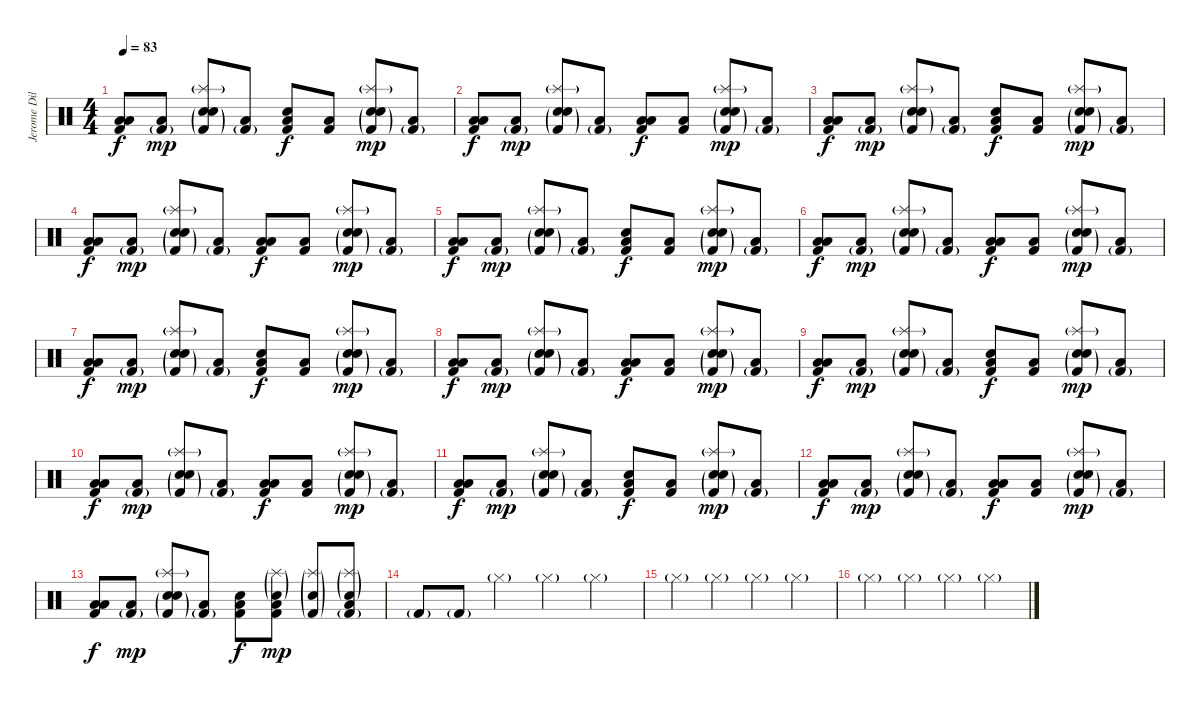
\track ("Jerome Dillon" "Jerome Dil") {instrument percussion}
\staff {score}
\articulation defaults
\ts (4 4)
\tempo 83
\clef neutral
\ks c
("Low Floor Tom (hit)" "Low Tom (hit)" "Kick (hit) 2").8{dy f} ("Low Tom (hit)" "Kick (hit) 2"{g}).8{dy mp} ("Splash (hit)"{g} "Hand Clap (hit)" "Electric Snare (hit)"{g} "Kick (hit) 2"{g}).8 ("Low Tom (hit)" "Kick (hit) 2"{g}).8 ("Low Floor Tom (hit)" "Snare (hit)" "Kick (hit) 2").8{dy f} ("Low Tom (hit)" "Kick (hit) 2").8 ("Splash (hit)"{g} "Hand Clap (hit)" "Electric Snare (hit)"{g} "Kick (hit) 2"{g}).8{dy mp} ("Low Tom (hit)" "Kick (hit) 2"{g}).8 |
("Low Floor Tom (hit)" "Low Tom (hit)" "Kick (hit) 2").8{dy f} ("Low Tom (hit)" "Kick (hit) 2"{g}).8{dy mp} ("Splash (hit)"{g} "Hand Clap (hit)" "Electric Snare (hit)"{g} "Kick (hit) 2"{g}).8 ("Low Tom (hit)" "Kick (hit) 2"{g}).8 ("Low Floor Tom (hit)" "Low Tom (hit)" "Kick (hit) 2").8{dy f} ("Low Tom (hit)" "Kick (hit) 2").8 ("Splash (hit)"{g} "Hand Clap (hit)" "Electric Snare (hit)"{g} "Kick (hit) 2"{g}).8{dy mp} ("Low Tom (hit)" "Kick (hit) 2"{g}).8 |
("Low Floor Tom (hit)" "Low Tom (hit)" "Kick (hit) 2").8{dy f} ("Low Tom (hit)" "Kick (hit) 2"{g}).8{dy mp} ("Splash (hit)"{g} "Hand Clap (hit)" "Electric Snare (hit)"{g} "Kick (hit) 2"{g}).8 ("Low Tom (hit)" "Kick (hit) 2"{g}).8 ("Low Floor Tom (hit)" "Snare (hit)" "Kick (hit) 2").8{dy f} ("Low Tom (hit)" "Kick (hit) 2").8 ("Splash (hit)"{g} "Hand Clap (hit)" "Electric Snare (hit)"{g} "Kick (hit) 2"{g}).8{dy mp} ("Low Tom (hit)" "Kick (hit) 2"{g}).8 |
("Low Floor Tom (hit)" "Low Tom (hit)" "Kick (hit) 2").8{dy f} ("Low Tom (hit)" "Kick (hit) 2"{g}).8{dy mp} ("Splash (hit)"{g} "Hand Clap (hit)" "Electric Snare (hit)"{g} "Kick (hit) 2"{g}).8 ("Low Tom (hit)" "Kick (hit) 2"{g}).8 ("Low Floor Tom (hit)" "Low Tom (hit)" "Kick (hit) 2").8{dy f} ("Low Tom (hit)" "Kick (hit) 2").8 ("Splash (hit)"{g} "Hand Clap (hit)" "Electric Snare (hit)"{g} "Kick (hit) 2"{g}).8{dy mp} ("Low Tom (hit)" "Kick (hit) 2"{g}).8 |
("Low Floor Tom (hit)" "Low Tom (hit)" "Kick (hit) 2").8{dy f} ("Low Tom (hit)" "Kick (hit) 2"{g}).8{dy mp} ("Splash (hit)"{g} "Hand Clap (hit)" "Electric Snare (hit)"{g} "Kick (hit) 2"{g}).8 ("Low Tom (hit)" "Kick (hit) 2"{g}).8 ("Low Floor Tom (hit)" "Snare (hit)" "Kick (hit) 2").8{dy f} ("Low Tom (hit)" "Kick (hit) 2").8 ("Splash (hit)"{g} "Hand Clap (hit)" "Electric Snare (hit)"{g} "Kick (hit) 2"{g}).8{dy mp} ("Low Tom (hit)" "Kick (hit) 2"{g}).8 |
("Low Floor Tom (hit)" "Low Tom (hit)" "Kick (hit) 2").8{dy f} ("Low Tom (hit)" "Kick (hit) 2"{g}).8{dy mp} ("Splash (hit)"{g} "Hand Clap (hit)" "Electric Snare (hit)"{g} "Kick (hit) 2"{g}).8 ("Low Tom (hit)" "Kick (hit) 2"{g}).8 ("Low Floor Tom (hit)" "Low Tom (hit)" "Kick (hit) 2").8{dy f} ("Low Tom (hit)" "Kick (hit) 2").8 ("Splash (hit)"{g} "Hand Clap (hit)" "Electric Snare (hit)"{g} "Kick (hit) 2"{g}).8{dy mp} ("Low Tom (hit)" "Kick (hit) 2"{g}).8 |
("Low Floor Tom (hit)" "Low Tom (hit)" "Kick (hit) 2").8{dy f} ("Low Tom (hit)" "Kick (hit) 2"{g}).8{dy mp} ("Splash (hit)"{g} "Hand Clap (hit)" "Electric Snare (hit)"{g} "Kick (hit) 2"{g}).8 ("Low Tom (hit)" "Kick (hit) 2"{g}).8 ("Low Floor Tom (hit)" "Snare (hit)" "Kick (hit) 2").8{dy f} ("Low Tom (hit)" "Kick (hit) 2").8 ("Splash (hit)"{g} "Hand Clap (hit)" "Electric Snare (hit)"{g} "Kick (hit) 2"{g}).8{dy mp} ("Low Tom (hit)" "Kick (hit) 2"{g}).8 |
("Low Floor Tom (hit)" "Low Tom (hit)" "Kick (hit) 2").8{dy f} ("Low Tom (hit)" "Kick (hit) 2"{g}).8{dy mp} ("Splash (hit)"{g} "Hand Clap (hit)" "Electric Snare (hit)"{g} "Kick (hit) 2"{g}).8 ("Low Tom (hit)" "Kick (hit) 2"{g}).8 ("Low Floor Tom (hit)" "Low Tom (hit)" "Kick (hit) 2").8{dy f} ("Low Tom (hit)" "Kick (hit) 2").8 ("Splash (hit)"{g} "Hand Clap (hit)" "Electric Snare (hit)"{g} "Kick (hit) 2"{g}).8{dy mp} ("Low Tom (hit)" "Kick (hit) 2"{g}).8 |
("Low Floor Tom (hit)" "Low Tom (hit)" "Kick (hit) 2").8{dy f} ("Low Tom (hit)" "Kick (hit) 2"{g}).8{dy mp} ("Splash (hit)"{g} "Hand Clap (hit)" "Electric Snare (hit)"{g} "Kick (hit) 2"{g}).8 ("Low Tom (hit)" "Kick (hit) 2"{g}).8 ("Low Floor Tom (hit)" "Snare (hit)" "Kick (hit) 2").8{dy f} ("Low Tom (hit)" "Kick (hit) 2").8 ("Splash (hit)"{g} "Hand Clap (hit)" "Electric Snare (hit)"{g} "Kick (hit) 2"{g}).8{dy mp} ("Low Tom (hit)" "Kick (hit) 2"{g}).8 |
("Low Floor Tom (hit)" "Low Tom (hit)" "Kick (hit) 2").8{dy f} ("Low Tom (hit)" "Kick (hit) 2"{g}).8{dy mp} ("Splash (hit)"{g} "Hand Clap (hit)" "Electric Snare (hit)"{g} "Kick (hit) 2"{g}).8 ("Low Tom (hit)" "Kick (hit) 2"{g}).8 ("Low Floor Tom (hit)" "Low Tom (hit)" "Kick (hit) 2").8{dy f} ("Low Tom (hit)" "Kick (hit) 2").8 ("Splash (hit)"{g} "Hand Clap (hit)" "Electric Snare (hit)"{g} "Kick (hit) 2"{g}).8{dy mp} ("Low Tom (hit)" "Kick (hit) 2"{g}).8 |
("Low Floor Tom (hit)" "Low Tom (hit)" "Kick (hit) 2").8{dy f} ("Low Tom (hit)" "Kick (hit) 2"{g}).8{dy mp} ("Splash (hit)"{g} "Hand Clap (hit)" "Electric Snare (hit)"{g} "Kick (hit) 2"{g}).8 ("Low Tom (hit)" "Kick (hit) 2"{g}).8 ("Low Floor Tom (hit)" "Snare (hit)" "Kick (hit) 2").8{dy f} ("Low Tom (hit)" "Kick (hit) 2").8 ("Splash (hit)"{g} "Hand Clap (hit)" "Electric Snare (hit)"{g} "Kick (hit) 2"{g}).8{dy mp} ("Low Tom (hit)" "Kick (hit) 2"{g}).8 |
("Low Floor Tom (hit)" "Low Tom (hit)" "Kick (hit) 2").8{dy f} ("Low Tom (hit)" "Kick (hit) 2"{g}).8{dy mp} ("Splash (hit)"{g} "Hand Clap (hit)" "Electric Snare (hit)"{g} "Kick (hit) 2"{g}).8 ("Low Tom (hit)" "Kick (hit) 2"{g}).8 ("Low Floor Tom (hit)" "Low Tom (hit)" "Kick (hit) 2").8{dy f} ("Low Tom (hit)" "Kick (hit) 2").8 ("Splash (hit)"{g} "Hand Clap (hit)" "Electric Snare (hit)"{g} "Kick (hit) 2"{g}).8{dy mp} ("Low Tom (hit)" "Kick (hit) 2"{g}).8 |
("Low Floor Tom (hit)" "Low Tom (hit)" "Kick (hit) 2").8{dy f} ("Low Tom (hit)" "Kick (hit) 2"{g}).8{dy mp} ("Splash (hit)"{g} "Hand Clap (hit)" "Electric Snare (hit)"{g} "Kick (hit) 2"{g}).8 ("Low Tom (hit)" "Kick (hit) 2"{g}).8 ("Low Floor Tom (hit)" "Snare (hit)" "Kick (hit) 2").8{dy f} ("Splash (hit)"{g} "Electric Snare (hit)"{g} "Low Tom (hit)" "Kick (hit) 2").8{dy mp} ("Splash (hit)"{g} "Electric Snare (hit)"{g} "Kick (hit) 2"{g}).8 ("Splash (hit)"{g} "Electric Snare (hit)"{g} "Low Tom (hit)" "Kick (hit) 2"{g}).8 |
"Kick (hit) 2"{g}.8 "Kick (hit) 2"{g}.8 "Hi-Hat (closed)"{g}.4 "Hi-Hat (closed)"{g}.4 "Hi-Hat (closed)"{g}.4 |
"Hi-Hat (closed)"{g}.4 "Hi-Hat (closed)"{g}.4 "Hi-Hat (closed)"{g}.4 "Hi-Hat (closed)"{g}.4 |
"Hi-Hat (closed)"{g}.4 "Hi-Hat (closed)"{g}.4 "Hi-Hat (closed)"{g}.4 "Hi-Hat (closed)"{g}.4
